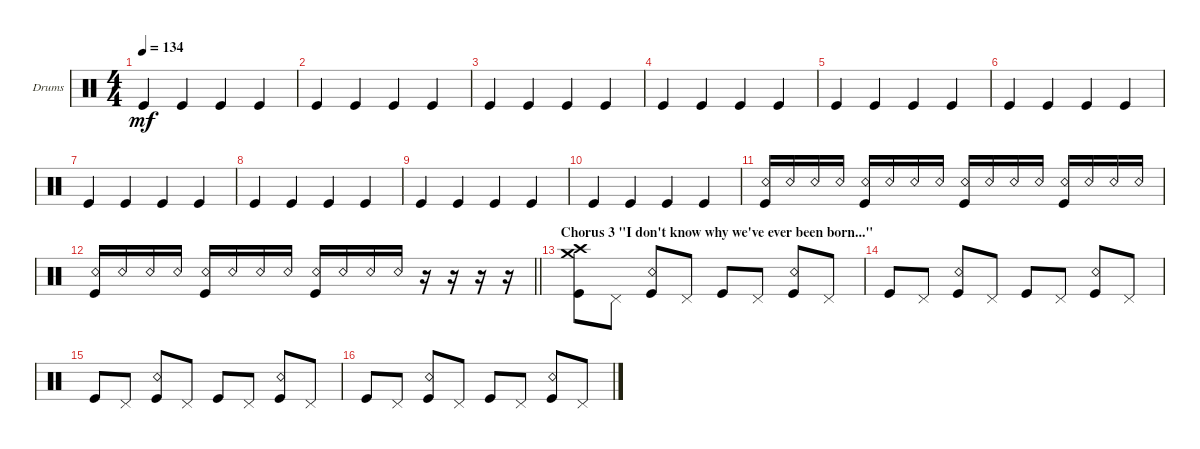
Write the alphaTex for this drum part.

\bracketExtendMode groupsimilarinstruments
\firstSystemTrackNameOrientation horizontal
\otherSystemsTrackNameOrientation horizontal
\track ("Nicky Bomba" "Drums") {instrument percussion}
\staff {score}
\articulation defaults
\ts (4 4)
\tempo 134
\clef neutral
\scale
0.333333
\ks c "Kick (hit)".4{dy mf} "Kick (hit)".4 "Kick (hit)".4 "Kick (hit)".4
|
\scale
0.333333 "Kick (hit)".4 "Kick (hit)".4 "Kick (hit)".4 "Kick (hit)".4 |
\scale
0.333333 "Kick (hit)".4 "Kick (hit)".4 "Kick (hit)".4 "Kick (hit)".4 |
\scale
0.333333 "Kick (hit)".4 "Kick (hit)".4 "Kick (hit)".4 "Kick (hit)".4 |
\scale
0.333333 "Kick (hit)".4 "Kick (hit)".4 "Kick (hit)".4 "Kick (hit)".4 |
\scale
0.333333 "Kick (hit)".4 "Kick (hit)".4 "Kick (hit)".4 "Kick (hit)".4 |
\scale
0.333333 "Kick (hit)".4 "Kick (hit)".4 "Kick (hit)".4 "Kick (hit)".4 |
\scale
0.333333 "Kick (hit)".4 "Kick (hit)".4 "Kick (hit)".4 "Kick (hit)".4 |
\scale
0.333333 "Kick (hit)".4 "Kick (hit)".4 "Kick (hit)".4 "Kick (hit)".4 |
\scale
0.333333 "Kick (hit)".4 "Kick (hit)".4 "Kick (hit)".4 "Kick (hit)".4 |
\scale
0.333333 ("Kick (hit)" "Snare (rim shot)").16 "Snare (rim shot)".16 "Snare (rim shot)".16 "Snare (rim shot)".16 ("Kick (hit)" "Snare (rim shot)").16 "Snare (rim shot)".16 "Snare (rim shot)".16 "Snare (rim shot)".16 ("Kick (hit)" "Snare (rim shot)").16 "Snare (rim shot)".16 "Snare (rim shot)".16 "Snare (rim shot)".16 ("Kick (hit)" "Snare (rim shot)").16 "Snare (rim shot)".16 "Snare (rim shot)".16 "Snare (rim shot)".16 |
\scale
0.333333
\barLineRight lightlight
("Kick (hit)" "Snare (rim shot)").16 "Snare (rim shot)".16 "Snare (rim shot)".16 "Snare (rim shot)".16 ("Kick (hit)" "Snare (rim shot)").16 "Snare (rim shot)".16 "Snare (rim shot)".16 "Snare (rim shot)".16 ("Kick (hit)" "Snare (rim shot)").16 "Snare (rim shot)".16 "Snare (rim shot)".16 "Snare (rim shot)".16 r.16 r.16 r.16 r.16 |
\section ("" "Chorus 3 \"I don't know why we've ever been born...\"")
\scale
0.333333 ("Kick (hit)" "Crash medium (hit)" "Crash high (hit)").8 "Pedal Hi-Hat (hit)".8 ("Kick (hit)" "Snare (rim shot)").8 "Pedal Hi-Hat (hit)".8 "Kick (hit)".8 "Pedal Hi-Hat (hit)".8 ("Kick (hit)" "Snare (rim shot)").8 "Pedal Hi-Hat (hit)".8 |
\scale
0.333333 "Kick (hit)".8 "Pedal Hi-Hat (hit)".8 ("Kick (hit)" "Snare (rim shot)").8 "Pedal Hi-Hat (hit)".8 "Kick (hit)".8 "Pedal Hi-Hat (hit)".8 ("Kick (hit)" "Snare (rim shot)").8 "Pedal Hi-Hat (hit)".8 |
\scale
0.333333 "Kick (hit)".8 "Pedal Hi-Hat (hit)".8 ("Kick (hit)" "Snare (rim shot)").8 "Pedal Hi-Hat (hit)".8 "Kick (hit)".8 "Pedal Hi-Hat (hit)".8 ("Kick (hit)" "Snare (rim shot)").8 "Pedal Hi-Hat (hit)".8 |
\scale
0.333333 "Kick (hit)".8 "Pedal Hi-Hat (hit)".8 ("Kick (hit)" "Snare (rim shot)").8 "Pedal Hi-Hat (hit)".8 "Kick (hit)".8 "Pedal Hi-Hat (hit)".8 ("Kick (hit)" "Snare (rim shot)").8 "Pedal Hi-Hat (hit)".8
